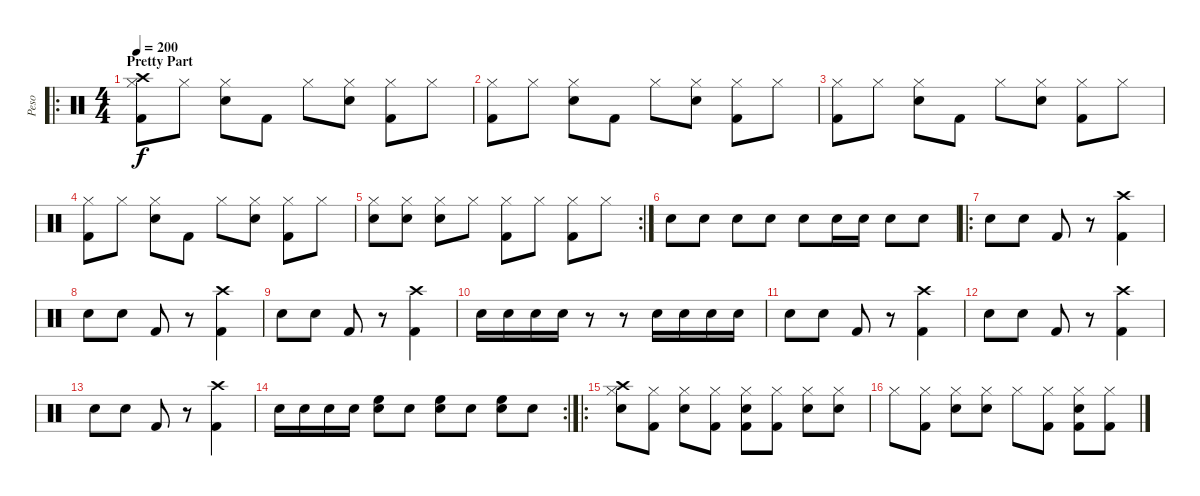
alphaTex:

\track ("Peso" "Peso") {instrument percussion}
\staff {score}
\articulation defaults
\ro
\ts (4 4)
\section ("" "Pretty Part")
\tempo 200
\clef neutral
\ks c
("Crash high (hit)" "Hi-Hat (closed)" "Kick (hit) 2").8{dy f} "Hi-Hat (closed)".8 ("Hi-Hat (closed)" "Snare (hit) 2").8 "Kick (hit) 2".8 "Hi-Hat (closed)".8 ("Hi-Hat (closed)" "Snare (hit) 2").8 ("Hi-Hat (closed)" "Kick (hit) 2").8 "Hi-Hat (closed)".8 |
("Hi-Hat (closed)" "Kick (hit) 2").8 "Hi-Hat (closed)".8 ("Hi-Hat (closed)" "Snare (hit) 2").8 "Kick (hit) 2".8 "Hi-Hat (closed)".8 ("Hi-Hat (closed)" "Snare (hit) 2").8 ("Hi-Hat (closed)" "Kick (hit) 2").8 "Hi-Hat (closed)".8 |
("Hi-Hat (closed)" "Kick (hit) 2").8 "Hi-Hat (closed)".8 ("Hi-Hat (closed)" "Snare (hit) 2").8 "Kick (hit) 2".8 "Hi-Hat (closed)".8 ("Hi-Hat (closed)" "Snare (hit) 2").8 ("Hi-Hat (closed)" "Kick (hit) 2").8 "Hi-Hat (closed)".8 |
("Hi-Hat (closed)" "Kick (hit) 2").8 "Hi-Hat (closed)".8 ("Hi-Hat (closed)" "Snare (hit) 2").8 "Kick (hit) 2".8 "Hi-Hat (closed)".8 ("Hi-Hat (closed)" "Snare (hit) 2").8 ("Hi-Hat (closed)" "Kick (hit) 2").8 "Hi-Hat (closed)".8 |
\rc 2
("Hi-Hat (closed)" "Snare (hit) 2").8 ("Hi-Hat (closed)" "Snare (hit) 2").8 ("Hi-Hat (closed)" "Snare (hit) 2").8 "Hi-Hat (closed)".8 ("Hi-Hat (closed)" "Kick (hit) 2").8 "Hi-Hat (closed)".8 ("Hi-Hat (closed)" "Kick (hit) 2").8 "Hi-Hat (closed)".8 |
"Snare (hit) 2".8 "Snare (hit) 2".8 "Snare (hit) 2".8 "Snare (hit) 2".8 "Snare (hit) 2".8 "Snare (hit) 2".16 "Snare (hit) 2".16 "Snare (hit) 2".8 "Snare (hit) 2".8 |
\ro "Snare (hit) 2".8 "Snare (hit) 2".8 "Kick (hit) 2".8
r.8 ("Crash high (hit)" "Kick (hit) 2").4 |
"Snare (hit) 2".8 "Snare (hit) 2".8 "Kick (hit) 2".8 r.8 ("Crash high (hit)" "Kick (hit) 2").4 |
"Snare (hit) 2".8 "Snare (hit) 2".8 "Kick (hit) 2".8 r.8 ("Crash high (hit)" "Kick (hit) 2").4 |
"Snare (hit) 2".16 "Snare (hit) 2".16 "Snare (hit) 2".16 "Snare (hit) 2".16 r.8 r.8 "Snare (hit) 2".16 "Snare (hit) 2".16 "Snare (hit) 2".16 "Snare (hit) 2".16 |
"Snare (hit) 2".8 "Snare (hit) 2".8 "Kick (hit) 2".8 r.8 ("Crash high (hit)" "Kick (hit) 2").4 |
"Snare (hit) 2".8 "Snare (hit) 2".8 "Kick (hit) 2".8 r.8 ("Crash high (hit)" "Kick (hit) 2").4 |
"Snare (hit) 2".8 "Snare (hit) 2".8 "Kick (hit) 2".8 r.8 ("Crash high (hit)" "Kick (hit) 2").4 |
\rc 2 "Snare (hit) 2".16 "Snare (hit) 2".16 "Snare (hit) 2".16 "Snare (hit) 2".16
("Snare (hit) 2" "High Floor Tom (hit)").8 "Snare (hit) 2".8 ("Snare (hit) 2" "High Floor Tom (hit)").8 "Snare (hit) 2".8 ("Snare (hit) 2" "High Floor Tom (hit)").8 "Snare (hit) 2".8 |
\ro
("Crash high (hit)" "Hi-Hat (closed)" "Snare (hit) 2").8 ("Hi-Hat (closed)" "Kick (hit) 2").8 ("Hi-Hat (closed)" "Snare (hit) 2").8 ("Hi-Hat (closed)" "Kick (hit) 2").8 ("Hi-Hat (closed)" "Snare (hit) 2" "Kick (hit) 2").8 ("Hi-Hat (closed)" "Kick (hit) 2").8 ("Hi-Hat (closed)" "Snare (hit) 2").8 ("Hi-Hat (closed)" "Snare (hit) 2").8 |
"Hi-Hat (closed)".8 ("Hi-Hat (closed)" "Kick (hit) 2").8 ("Hi-Hat (closed)" "Snare (hit) 2").8 ("Hi-Hat (closed)" "Snare (hit) 2").8 "Hi-Hat (closed)".8 ("Hi-Hat (closed)" "Kick (hit) 2").8 ("Hi-Hat (closed)" "Snare (hit) 2" "Kick (hit) 2").8 ("Hi-Hat (closed)" "Kick (hit) 2").8
